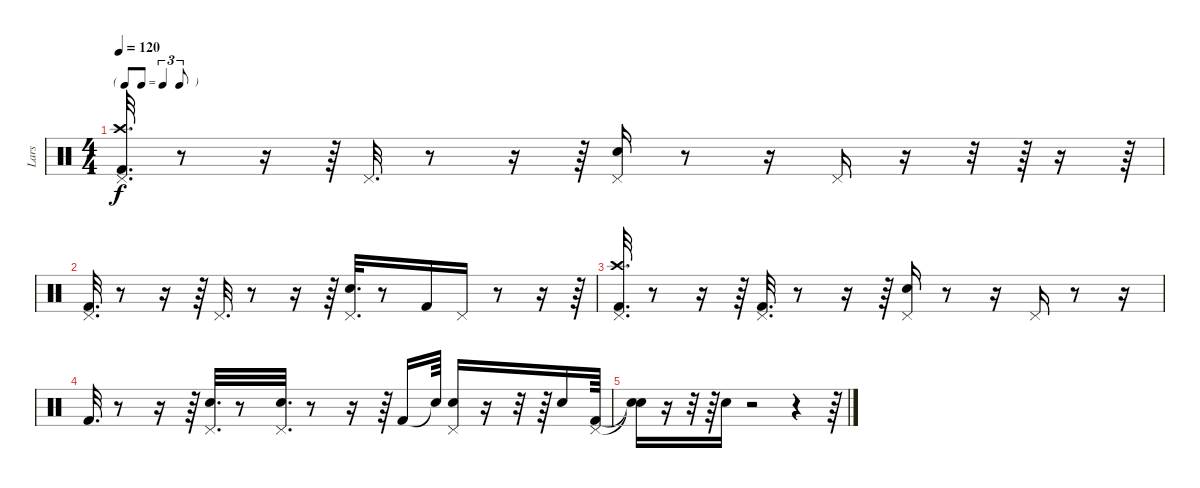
\track ("Lars" "Lars") {instrument percussion}
\staff {score}
\articulation defaults
\ts (4 4)
\tf triplet8th
\tempo 120
\clef neutral
\ks c
("Kick (hit) 2" "Crash high (hit)" "Pedal Hi-Hat (hit)").32{d dy f} r.8 r.16 r.64 "Pedal Hi-Hat (hit)".32{d} r.8 r.16 r.64 ("Electric Snare (hit)" "Pedal Hi-Hat (hit)").16 r.8 r.16 "Pedal Hi-Hat (hit)".16 r.16 r.32 r.64 r.16 r.64 |
("Kick (hit) 2" "Pedal Hi-Hat (hit)").32{d} r.8 r.16 r.64 "Pedal Hi-Hat (hit)".32{d} r.8 r.16 r.64 ("Electric Snare (hit)" "Pedal Hi-Hat (hit)").32{d} r.8 "Kick (hit) 2".16 "Pedal Hi-Hat (hit)".16 r.8 r.16 r.64 |
("Kick (hit) 2" "Pedal Hi-Hat (hit)" "Crash high (hit)").32{d} r.8 r.16 r.64 ("Pedal Hi-Hat (hit)" "Kick (hit) 2").32{d} r.8 r.16 r.64 ("Electric Snare (hit)" "Pedal Hi-Hat (hit)").16 r.8 r.16 "Pedal Hi-Hat (hit)".16 r.8 r.16 |
"Kick (hit) 2".32{d} r.8 r.16 r.64 ("Pedal Hi-Hat (hit)" "Electric Snare (hit)").32{d} r.8 ("Pedal Hi-Hat (hit)" "Electric Snare (hit)").32{d} r.8 r.16 r.64 "Kick (hit) 2".16 "Snare (hit)"{t}.64 ("Electric Snare (hit)" "Pedal Hi-Hat (hit)").16 r.16 r.32 r.64 "Electric Snare (hit)".16 ("Kick (hit) 2" "Pedal Hi-Hat (hit)").64 |
("Snare (hit)"{t} "Snare (hit)"{t}).16 r.16 r.32 r.64 "Electric Snare (hit)".16 r.2 r.4 r.64
